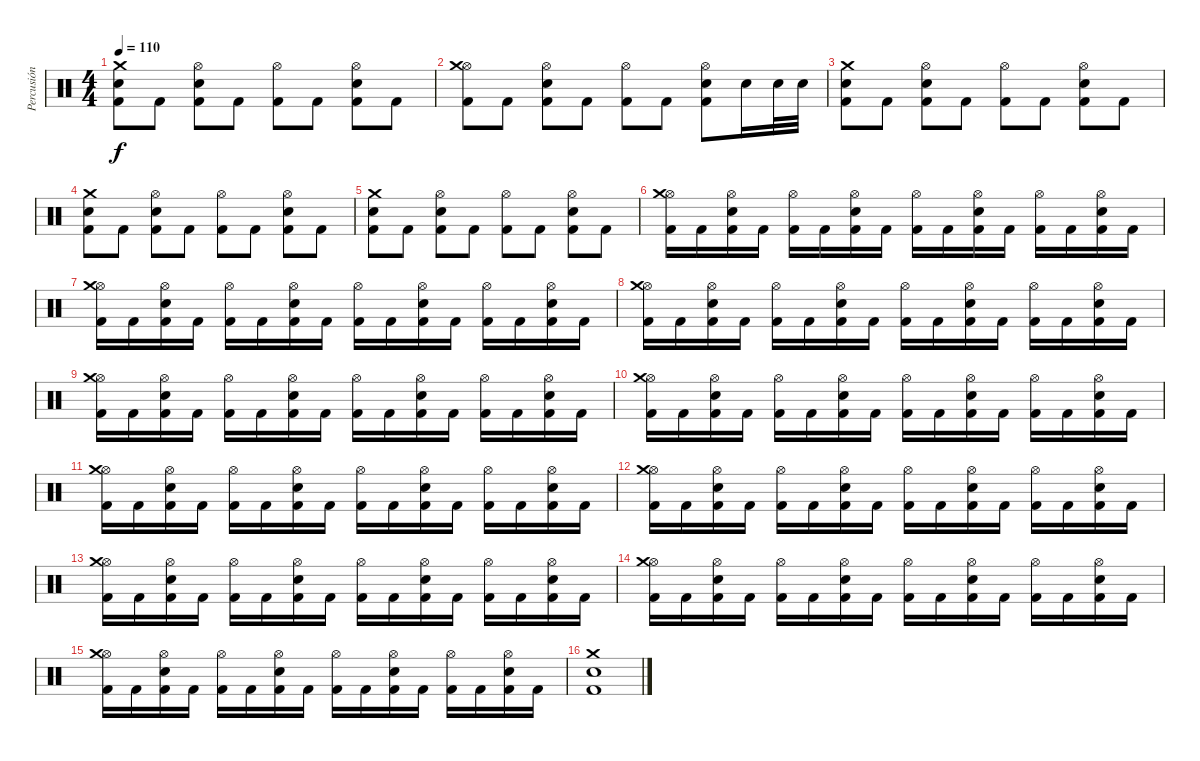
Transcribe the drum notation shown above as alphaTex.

\track ("Percusión" "Percusión") {instrument percussion}
\staff {score}
\articulation defaults
\ts (4 4)
\tempo 110
\clef neutral
\ks c
("Kick (hit) 2" "Electric Snare (hit)" "Crash medium (hit)").8{dy f} "Kick (hit) 2".8 ("Hi-Hat (open)" "Electric Snare (hit)" "Kick (hit) 2").8 "Kick (hit) 2".8 ("Hi-Hat (open)" "Kick (hit) 2").8 "Kick (hit) 2".8 ("Hi-Hat (open)" "Electric Snare (hit)" "Kick (hit) 2").8 "Kick (hit) 2".8 |
("Hi-Hat (open)" "Kick (hit) 2" "Crash medium (hit)").8 "Kick (hit) 2".8 ("Hi-Hat (open)" "Electric Snare (hit)" "Kick (hit) 2").8 "Kick (hit) 2".8 ("Hi-Hat (open)" "Kick (hit) 2").8 "Kick (hit) 2".8 ("Hi-Hat (open)" "Electric Snare (hit)" "Kick (hit) 2").8 "Electric Snare (hit)".16 "Electric Snare (hit)".32 "Electric Snare (hit)".32 |
("Kick (hit) 2" "Electric Snare (hit)" "Crash medium (hit)").8 "Kick (hit) 2".8 ("Hi-Hat (open)" "Electric Snare (hit)" "Kick (hit) 2").8 "Kick (hit) 2".8 ("Hi-Hat (open)" "Kick (hit) 2").8 "Kick (hit) 2".8 ("Hi-Hat (open)" "Electric Snare (hit)" "Kick (hit) 2").8 "Kick (hit) 2".8 |
("Kick (hit) 2" "Electric Snare (hit)" "Crash medium (hit)").8 "Kick (hit) 2".8 ("Hi-Hat (open)" "Electric Snare (hit)" "Kick (hit) 2").8 "Kick (hit) 2".8 ("Hi-Hat (open)" "Kick (hit) 2").8 "Kick (hit) 2".8 ("Hi-Hat (open)" "Electric Snare (hit)" "Kick (hit) 2").8 "Kick (hit) 2".8 |
("Kick (hit) 2" "Electric Snare (hit)" "Crash medium (hit)").8 "Kick (hit) 2".8 ("Hi-Hat (open)" "Electric Snare (hit)" "Kick (hit) 2").8 "Kick (hit) 2".8 ("Hi-Hat (open)" "Kick (hit) 2").8 "Kick (hit) 2".8 ("Hi-Hat (open)" "Electric Snare (hit)" "Kick (hit) 2").8 "Kick (hit) 2".8 |
("Hi-Hat (open)" "Kick (hit) 2" "Crash medium (hit)").16 "Kick (hit) 2".16 ("Hi-Hat (open)" "Electric Snare (hit)" "Kick (hit) 2").16 "Kick (hit) 2".16 ("Hi-Hat (open)" "Kick (hit) 2").16 "Kick (hit) 2".16 ("Hi-Hat (open)" "Electric Snare (hit)" "Kick (hit) 2").16 "Kick (hit) 2".16 ("Hi-Hat (open)" "Kick (hit) 2").16 "Kick (hit) 2".16 ("Hi-Hat (open)" "Electric Snare (hit)" "Kick (hit) 2").16 "Kick (hit) 2".16 ("Hi-Hat (open)" "Kick (hit) 2").16 "Kick (hit) 2".16 ("Hi-Hat (open)" "Electric Snare (hit)" "Kick (hit) 2").16 "Kick (hit) 2".16 |
("Hi-Hat (open)" "Kick (hit) 2" "Crash medium (hit)").16 "Kick (hit) 2".16 ("Hi-Hat (open)" "Electric Snare (hit)" "Kick (hit) 2").16 "Kick (hit) 2".16 ("Hi-Hat (open)" "Kick (hit) 2").16 "Kick (hit) 2".16 ("Hi-Hat (open)" "Electric Snare (hit)" "Kick (hit) 2").16 "Kick (hit) 2".16 ("Hi-Hat (open)" "Kick (hit) 2").16 "Kick (hit) 2".16 ("Hi-Hat (open)" "Electric Snare (hit)" "Kick (hit) 2").16 "Kick (hit) 2".16 ("Hi-Hat (open)" "Kick (hit) 2").16 "Kick (hit) 2".16 ("Hi-Hat (open)" "Electric Snare (hit)" "Kick (hit) 2").16 "Kick (hit) 2".16 |
("Hi-Hat (open)" "Kick (hit) 2" "Crash medium (hit)").16 "Kick (hit) 2".16 ("Hi-Hat (open)" "Electric Snare (hit)" "Kick (hit) 2").16 "Kick (hit) 2".16 ("Hi-Hat (open)" "Kick (hit) 2").16 "Kick (hit) 2".16 ("Hi-Hat (open)" "Electric Snare (hit)" "Kick (hit) 2").16 "Kick (hit) 2".16 ("Hi-Hat (open)" "Kick (hit) 2").16 "Kick (hit) 2".16 ("Hi-Hat (open)" "Electric Snare (hit)" "Kick (hit) 2").16 "Kick (hit) 2".16 ("Hi-Hat (open)" "Kick (hit) 2").16 "Kick (hit) 2".16 ("Hi-Hat (open)" "Electric Snare (hit)" "Kick (hit) 2").16 "Kick (hit) 2".16 |
("Hi-Hat (open)" "Kick (hit) 2" "Crash medium (hit)").16 "Kick (hit) 2".16 ("Hi-Hat (open)" "Electric Snare (hit)" "Kick (hit) 2").16 "Kick (hit) 2".16 ("Hi-Hat (open)" "Kick (hit) 2").16 "Kick (hit) 2".16 ("Hi-Hat (open)" "Electric Snare (hit)" "Kick (hit) 2").16 "Kick (hit) 2".16 ("Hi-Hat (open)" "Kick (hit) 2").16 "Kick (hit) 2".16 ("Hi-Hat (open)" "Electric Snare (hit)" "Kick (hit) 2").16 "Kick (hit) 2".16 ("Hi-Hat (open)" "Kick (hit) 2").16 "Kick (hit) 2".16 ("Hi-Hat (open)" "Electric Snare (hit)" "Kick (hit) 2").16 "Kick (hit) 2".16 |
("Hi-Hat (open)" "Kick (hit) 2" "Crash medium (hit)").16 "Kick (hit) 2".16 ("Hi-Hat (open)" "Electric Snare (hit)" "Kick (hit) 2").16 "Kick (hit) 2".16 ("Hi-Hat (open)" "Kick (hit) 2").16 "Kick (hit) 2".16 ("Hi-Hat (open)" "Electric Snare (hit)" "Kick (hit) 2").16 "Kick (hit) 2".16 ("Hi-Hat (open)" "Kick (hit) 2").16 "Kick (hit) 2".16 ("Hi-Hat (open)" "Electric Snare (hit)" "Kick (hit) 2").16 "Kick (hit) 2".16 ("Hi-Hat (open)" "Kick (hit) 2").16 "Kick (hit) 2".16 ("Hi-Hat (open)" "Electric Snare (hit)" "Kick (hit) 2").16 "Kick (hit) 2".16 |
("Hi-Hat (open)" "Kick (hit) 2" "Crash medium (hit)").16 "Kick (hit) 2".16 ("Hi-Hat (open)" "Electric Snare (hit)" "Kick (hit) 2").16 "Kick (hit) 2".16 ("Hi-Hat (open)" "Kick (hit) 2").16 "Kick (hit) 2".16 ("Hi-Hat (open)" "Electric Snare (hit)" "Kick (hit) 2").16 "Kick (hit) 2".16 ("Hi-Hat (open)" "Kick (hit) 2").16 "Kick (hit) 2".16 ("Hi-Hat (open)" "Electric Snare (hit)" "Kick (hit) 2").16 "Kick (hit) 2".16 ("Hi-Hat (open)" "Kick (hit) 2").16 "Kick (hit) 2".16 ("Hi-Hat (open)" "Electric Snare (hit)" "Kick (hit) 2").16 "Kick (hit) 2".16 |
("Hi-Hat (open)" "Kick (hit) 2" "Crash medium (hit)").16 "Kick (hit) 2".16 ("Hi-Hat (open)" "Electric Snare (hit)" "Kick (hit) 2").16 "Kick (hit) 2".16 ("Hi-Hat (open)" "Kick (hit) 2").16 "Kick (hit) 2".16 ("Hi-Hat (open)" "Electric Snare (hit)" "Kick (hit) 2").16 "Kick (hit) 2".16 ("Hi-Hat (open)" "Kick (hit) 2").16 "Kick (hit) 2".16 ("Hi-Hat (open)" "Electric Snare (hit)" "Kick (hit) 2").16 "Kick (hit) 2".16 ("Hi-Hat (open)" "Kick (hit) 2").16 "Kick (hit) 2".16 ("Hi-Hat (open)" "Electric Snare (hit)" "Kick (hit) 2").16 "Kick (hit) 2".16 |
("Hi-Hat (open)" "Kick (hit) 2" "Crash medium (hit)").16 "Kick (hit) 2".16 ("Hi-Hat (open)" "Electric Snare (hit)" "Kick (hit) 2").16 "Kick (hit) 2".16 ("Hi-Hat (open)" "Kick (hit) 2").16 "Kick (hit) 2".16 ("Hi-Hat (open)" "Electric Snare (hit)" "Kick (hit) 2").16 "Kick (hit) 2".16 ("Hi-Hat (open)" "Kick (hit) 2").16 "Kick (hit) 2".16 ("Hi-Hat (open)" "Electric Snare (hit)" "Kick (hit) 2").16 "Kick (hit) 2".16 ("Hi-Hat (open)" "Kick (hit) 2").16 "Kick (hit) 2".16 ("Hi-Hat (open)" "Electric Snare (hit)" "Kick (hit) 2").16 "Kick (hit) 2".16 |
("Hi-Hat (open)" "Kick (hit) 2" "Crash medium (hit)").16 "Kick (hit) 2".16 ("Hi-Hat (open)" "Electric Snare (hit)" "Kick (hit) 2").16 "Kick (hit) 2".16 ("Hi-Hat (open)" "Kick (hit) 2").16 "Kick (hit) 2".16 ("Hi-Hat (open)" "Electric Snare (hit)" "Kick (hit) 2").16 "Kick (hit) 2".16 ("Hi-Hat (open)" "Kick (hit) 2").16 "Kick (hit) 2".16 ("Hi-Hat (open)" "Electric Snare (hit)" "Kick (hit) 2").16 "Kick (hit) 2".16 ("Hi-Hat (open)" "Kick (hit) 2").16 "Kick (hit) 2".16 ("Hi-Hat (open)" "Electric Snare (hit)" "Kick (hit) 2").16 "Kick (hit) 2".16 |
("Hi-Hat (open)" "Kick (hit) 2" "Crash medium (hit)").16 "Kick (hit) 2".16 ("Hi-Hat (open)" "Electric Snare (hit)" "Kick (hit) 2").16 "Kick (hit) 2".16 ("Hi-Hat (open)" "Kick (hit) 2").16 "Kick (hit) 2".16 ("Hi-Hat (open)" "Electric Snare (hit)" "Kick (hit) 2").16 "Kick (hit) 2".16 ("Hi-Hat (open)" "Kick (hit) 2").16 "Kick (hit) 2".16 ("Hi-Hat (open)" "Electric Snare (hit)" "Kick (hit) 2").16 "Kick (hit) 2".16 ("Hi-Hat (open)" "Kick (hit) 2").16 "Kick (hit) 2".16 ("Hi-Hat (open)" "Electric Snare (hit)" "Kick (hit) 2").16 "Kick (hit) 2".16 |
("Kick (hit) 2" "Electric Snare (hit)" "Crash medium (hit)").1
